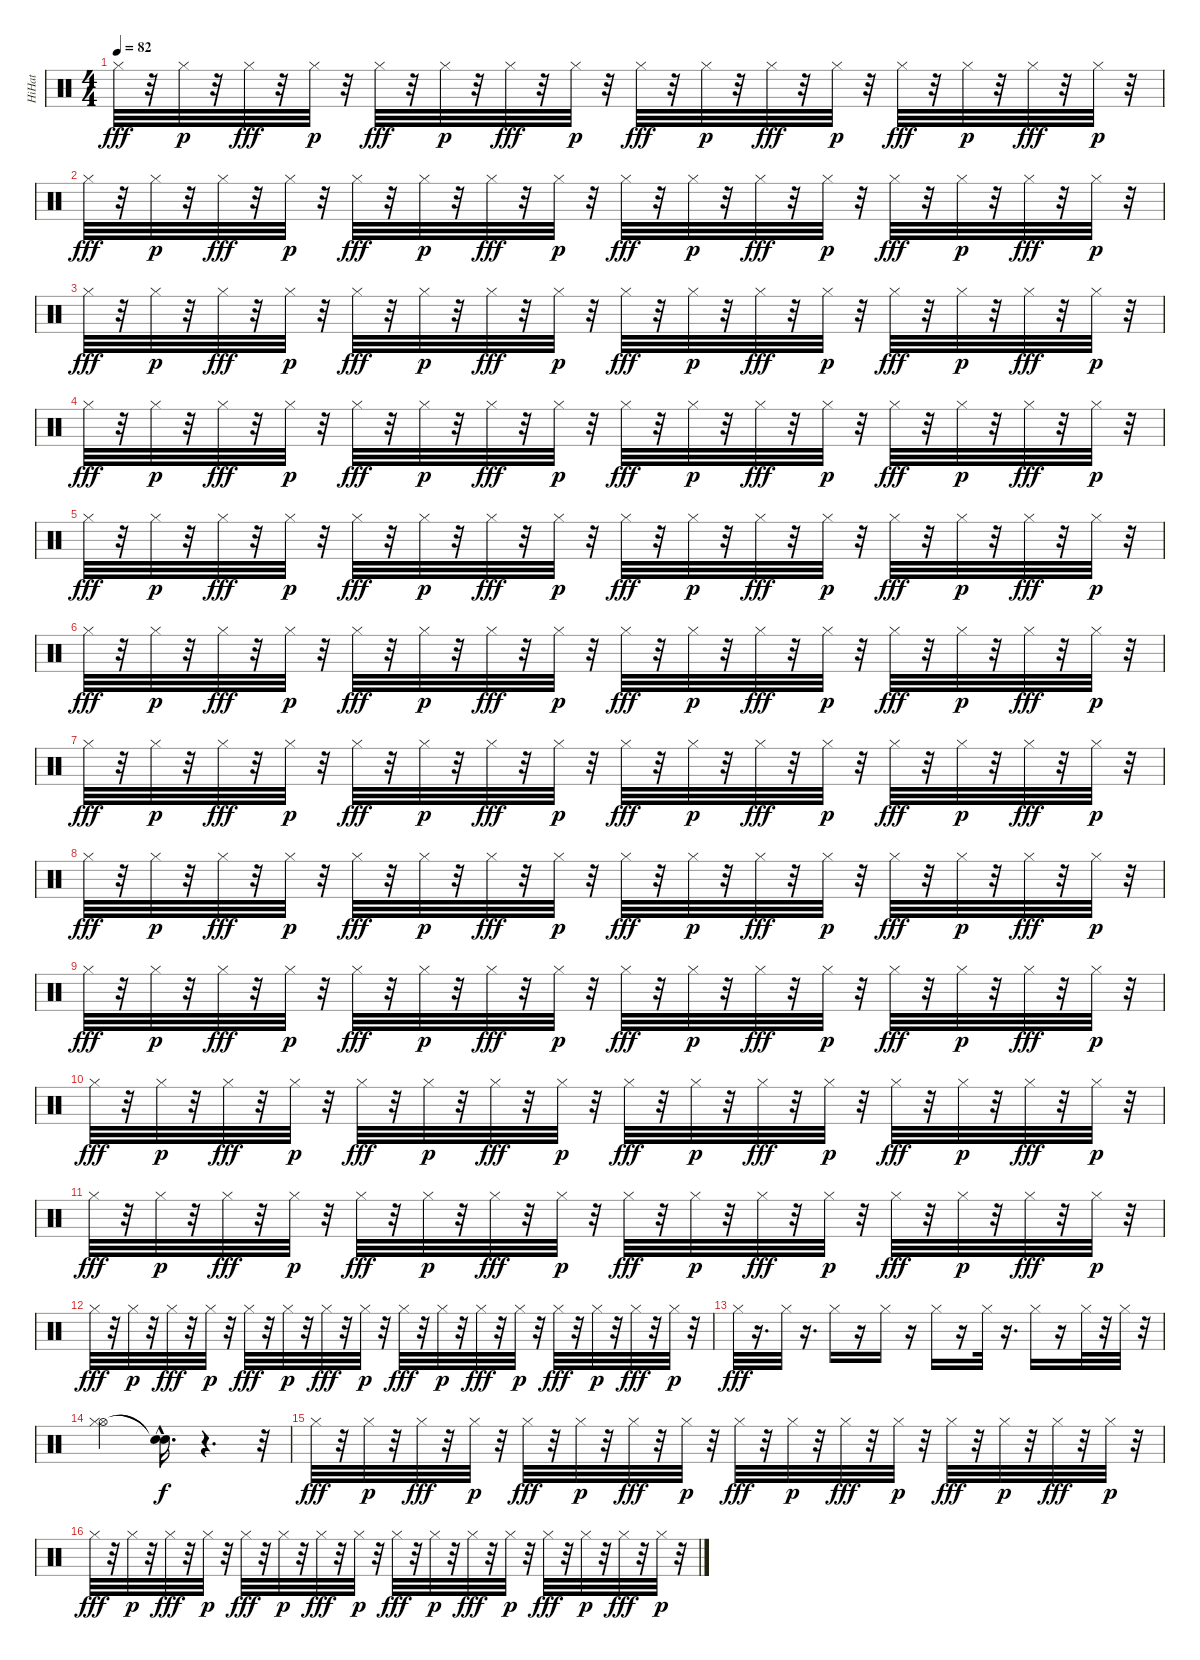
\track ("HiHat" "HiHat") {instrument percussion}
\staff {score}
\articulation defaults
\ts (4 4)
\tempo 82
\clef neutral
\ks c "Hi-Hat (closed)".32{dy fff}
r.32 "Hi-Hat (closed)".32{dy p} r.32 "Hi-Hat (closed)".32{dy fff} r.32 "Hi-Hat (closed)".32{dy p} r.32 "Hi-Hat (closed)".32{dy fff} r.32 "Hi-Hat (closed)".32{dy p} r.32 "Hi-Hat (closed)".32{dy fff} r.32 "Hi-Hat (closed)".32{dy p} r.32 "Hi-Hat (closed)".32{dy fff} r.32 "Hi-Hat (closed)".32{dy p} r.32 "Hi-Hat (closed)".32{dy fff} r.32 "Hi-Hat (closed)".32{dy p} r.32 "Hi-Hat (closed)".32{dy fff} r.32 "Hi-Hat (closed)".32{dy p} r.32 "Hi-Hat (closed)".32{dy fff} r.32 "Hi-Hat (closed)".32{dy p} r.32 |
"Hi-Hat (closed)".32{dy fff} r.32 "Hi-Hat (closed)".32{dy p} r.32 "Hi-Hat (closed)".32{dy fff} r.32 "Hi-Hat (closed)".32{dy p} r.32 "Hi-Hat (closed)".32{dy fff} r.32 "Hi-Hat (closed)".32{dy p} r.32 "Hi-Hat (closed)".32{dy fff} r.32 "Hi-Hat (closed)".32{dy p} r.32 "Hi-Hat (closed)".32{dy fff} r.32 "Hi-Hat (closed)".32{dy p} r.32 "Hi-Hat (closed)".32{dy fff} r.32 "Hi-Hat (closed)".32{dy p} r.32 "Hi-Hat (closed)".32{dy fff} r.32 "Hi-Hat (closed)".32{dy p} r.32 "Hi-Hat (closed)".32{dy fff} r.32 "Hi-Hat (closed)".32{dy p} r.32 |
"Hi-Hat (closed)".32{dy fff} r.32 "Hi-Hat (closed)".32{dy p} r.32 "Hi-Hat (closed)".32{dy fff} r.32 "Hi-Hat (closed)".32{dy p} r.32 "Hi-Hat (closed)".32{dy fff} r.32 "Hi-Hat (closed)".32{dy p} r.32 "Hi-Hat (closed)".32{dy fff} r.32 "Hi-Hat (closed)".32{dy p} r.32 "Hi-Hat (closed)".32{dy fff} r.32 "Hi-Hat (closed)".32{dy p} r.32 "Hi-Hat (closed)".32{dy fff} r.32 "Hi-Hat (closed)".32{dy p} r.32 "Hi-Hat (closed)".32{dy fff} r.32 "Hi-Hat (closed)".32{dy p} r.32 "Hi-Hat (closed)".32{dy fff} r.32 "Hi-Hat (closed)".32{dy p} r.32 |
"Hi-Hat (closed)".32{dy fff} r.32 "Hi-Hat (closed)".32{dy p} r.32 "Hi-Hat (closed)".32{dy fff} r.32 "Hi-Hat (closed)".32{dy p} r.32 "Hi-Hat (closed)".32{dy fff} r.32 "Hi-Hat (closed)".32{dy p} r.32 "Hi-Hat (closed)".32{dy fff} r.32 "Hi-Hat (closed)".32{dy p} r.32 "Hi-Hat (closed)".32{dy fff} r.32 "Hi-Hat (closed)".32{dy p} r.32 "Hi-Hat (closed)".32{dy fff} r.32 "Hi-Hat (closed)".32{dy p} r.32 "Hi-Hat (closed)".32{dy fff} r.32 "Hi-Hat (closed)".32{dy p} r.32 "Hi-Hat (closed)".32{dy fff} r.32 "Hi-Hat (closed)".32{dy p} r.32 |
"Hi-Hat (closed)".32{dy fff} r.32 "Hi-Hat (closed)".32{dy p} r.32 "Hi-Hat (closed)".32{dy fff} r.32 "Hi-Hat (closed)".32{dy p} r.32 "Hi-Hat (closed)".32{dy fff} r.32 "Hi-Hat (closed)".32{dy p} r.32 "Hi-Hat (closed)".32{dy fff} r.32 "Hi-Hat (closed)".32{dy p} r.32 "Hi-Hat (closed)".32{dy fff} r.32 "Hi-Hat (closed)".32{dy p} r.32 "Hi-Hat (closed)".32{dy fff} r.32 "Hi-Hat (closed)".32{dy p} r.32 "Hi-Hat (closed)".32{dy fff} r.32 "Hi-Hat (closed)".32{dy p} r.32 "Hi-Hat (closed)".32{dy fff} r.32 "Hi-Hat (closed)".32{dy p} r.32 |
"Hi-Hat (closed)".32{dy fff} r.32 "Hi-Hat (closed)".32{dy p} r.32 "Hi-Hat (closed)".32{dy fff} r.32 "Hi-Hat (closed)".32{dy p} r.32 "Hi-Hat (closed)".32{dy fff} r.32 "Hi-Hat (closed)".32{dy p} r.32 "Hi-Hat (closed)".32{dy fff} r.32 "Hi-Hat (closed)".32{dy p} r.32 "Hi-Hat (closed)".32{dy fff} r.32 "Hi-Hat (closed)".32{dy p} r.32 "Hi-Hat (closed)".32{dy fff} r.32 "Hi-Hat (closed)".32{dy p} r.32 "Hi-Hat (closed)".32{dy fff} r.32 "Hi-Hat (closed)".32{dy p} r.32 "Hi-Hat (closed)".32{dy fff} r.32 "Hi-Hat (closed)".32{dy p} r.32 |
"Hi-Hat (closed)".32{dy fff} r.32 "Hi-Hat (closed)".32{dy p} r.32 "Hi-Hat (closed)".32{dy fff} r.32 "Hi-Hat (closed)".32{dy p} r.32 "Hi-Hat (closed)".32{dy fff} r.32 "Hi-Hat (closed)".32{dy p} r.32 "Hi-Hat (closed)".32{dy fff} r.32 "Hi-Hat (closed)".32{dy p} r.32 "Hi-Hat (closed)".32{dy fff} r.32 "Hi-Hat (closed)".32{dy p} r.32 "Hi-Hat (closed)".32{dy fff} r.32 "Hi-Hat (closed)".32{dy p} r.32 "Hi-Hat (closed)".32{dy fff} r.32 "Hi-Hat (closed)".32{dy p} r.32 "Hi-Hat (closed)".32{dy fff} r.32 "Hi-Hat (closed)".32{dy p} r.32 |
"Hi-Hat (closed)".32{dy fff} r.32 "Hi-Hat (closed)".32{dy p} r.32 "Hi-Hat (closed)".32{dy fff} r.32 "Hi-Hat (closed)".32{dy p} r.32 "Hi-Hat (closed)".32{dy fff} r.32 "Hi-Hat (closed)".32{dy p} r.32 "Hi-Hat (closed)".32{dy fff} r.32 "Hi-Hat (closed)".32{dy p} r.32 "Hi-Hat (closed)".32{dy fff} r.32 "Hi-Hat (closed)".32{dy p} r.32 "Hi-Hat (closed)".32{dy fff} r.32 "Hi-Hat (closed)".32{dy p} r.32 "Hi-Hat (closed)".32{dy fff} r.32 "Hi-Hat (closed)".32{dy p} r.32 "Hi-Hat (closed)".32{dy fff} r.32 "Hi-Hat (closed)".32{dy p} r.32 |
"Hi-Hat (closed)".32{dy fff} r.32 "Hi-Hat (closed)".32{dy p} r.32 "Hi-Hat (closed)".32{dy fff} r.32 "Hi-Hat (closed)".32{dy p} r.32 "Hi-Hat (closed)".32{dy fff} r.32 "Hi-Hat (closed)".32{dy p} r.32 "Hi-Hat (closed)".32{dy fff} r.32 "Hi-Hat (closed)".32{dy p} r.32 "Hi-Hat (closed)".32{dy fff} r.32 "Hi-Hat (closed)".32{dy p} r.32 "Hi-Hat (closed)".32{dy fff} r.32 "Hi-Hat (closed)".32{dy p} r.32 "Hi-Hat (closed)".32{dy fff} r.32 "Hi-Hat (closed)".32{dy p} r.32 "Hi-Hat (closed)".32{dy fff} r.32 "Hi-Hat (closed)".32{dy p} r.32 |
"Hi-Hat (closed)".32{dy fff} r.32 "Hi-Hat (closed)".32{dy p} r.32 "Hi-Hat (closed)".32{dy fff} r.32 "Hi-Hat (closed)".32{dy p} r.32 "Hi-Hat (closed)".32{dy fff} r.32 "Hi-Hat (closed)".32{dy p} r.32 "Hi-Hat (closed)".32{dy fff} r.32 "Hi-Hat (closed)".32{dy p} r.32 "Hi-Hat (closed)".32{dy fff} r.32 "Hi-Hat (closed)".32{dy p} r.32 "Hi-Hat (closed)".32{dy fff} r.32 "Hi-Hat (closed)".32{dy p} r.32 "Hi-Hat (closed)".32{dy fff} r.32 "Hi-Hat (closed)".32{dy p} r.32 "Hi-Hat (closed)".32{dy fff} r.32 "Hi-Hat (closed)".32{dy p} r.32 |
"Hi-Hat (closed)".32{dy fff} r.32 "Hi-Hat (closed)".32{dy p} r.32 "Hi-Hat (closed)".32{dy fff} r.32 "Hi-Hat (closed)".32{dy p} r.32 "Hi-Hat (closed)".32{dy fff} r.32 "Hi-Hat (closed)".32{dy p} r.32 "Hi-Hat (closed)".32{dy fff} r.32 "Hi-Hat (closed)".32{dy p} r.32 "Hi-Hat (closed)".32{dy fff} r.32 "Hi-Hat (closed)".32{dy p} r.32 "Hi-Hat (closed)".32{dy fff} r.32 "Hi-Hat (closed)".32{dy p} r.32 "Hi-Hat (closed)".32{dy fff} r.32 "Hi-Hat (closed)".32{dy p} r.32 "Hi-Hat (closed)".32{dy fff} r.32 "Hi-Hat (closed)".32{dy p} r.32 |
"Hi-Hat (closed)".32{dy fff} r.32 "Hi-Hat (closed)".32{dy p} r.32 "Hi-Hat (closed)".32{dy fff} r.32 "Hi-Hat (closed)".32{dy p} r.32 "Hi-Hat (closed)".32{dy fff} r.32 "Hi-Hat (closed)".32{dy p} r.32 "Hi-Hat (closed)".32{dy fff} r.32 "Hi-Hat (closed)".32{dy p} r.32 "Hi-Hat (closed)".32{dy fff} r.32 "Hi-Hat (closed)".32{dy p} r.32 "Hi-Hat (closed)".32{dy fff} r.32 "Hi-Hat (closed)".32{dy p} r.32 "Hi-Hat (closed)".32{dy fff} r.32 "Hi-Hat (closed)".32{dy p} r.32 "Hi-Hat (closed)".32{dy fff} r.32 "Hi-Hat (closed)".32{dy p} r.32 |
"Hi-Hat (closed)".32{dy fff} r.16{d} "Hi-Hat (closed)".32 r.16{d} "Hi-Hat (closed)".16 r.16 "Hi-Hat (closed)".16 r.16 "Hi-Hat (closed)".16 r.16 "Hi-Hat (closed)".32 r.16{d} "Hi-Hat (closed)".16 r.16 "Hi-Hat (closed)".32 r.32 "Hi-Hat (closed)".32 r.32 |
("Hi-Hat (open)" "Hi-Hat (closed)").2 ("Snare (hit)"{t} "Snare (hit)"{hac t}).16{d dy f} r.4{d} r.32 |
"Hi-Hat (closed)".32{dy fff} r.32 "Hi-Hat (closed)".32{dy p} r.32 "Hi-Hat (closed)".32{dy fff} r.32 "Hi-Hat (closed)".32{dy p} r.32 "Hi-Hat (closed)".32{dy fff} r.32 "Hi-Hat (closed)".32{dy p} r.32 "Hi-Hat (closed)".32{dy fff} r.32 "Hi-Hat (closed)".32{dy p} r.32 "Hi-Hat (closed)".32{dy fff} r.32 "Hi-Hat (closed)".32{dy p} r.32 "Hi-Hat (closed)".32{dy fff} r.32 "Hi-Hat (closed)".32{dy p} r.32 "Hi-Hat (closed)".32{dy fff} r.32 "Hi-Hat (closed)".32{dy p} r.32 "Hi-Hat (closed)".32{dy fff} r.32 "Hi-Hat (closed)".32{dy p} r.32 |
"Hi-Hat (closed)".32{dy fff} r.32 "Hi-Hat (closed)".32{dy p} r.32 "Hi-Hat (closed)".32{dy fff} r.32 "Hi-Hat (closed)".32{dy p} r.32 "Hi-Hat (closed)".32{dy fff} r.32 "Hi-Hat (closed)".32{dy p} r.32 "Hi-Hat (closed)".32{dy fff} r.32 "Hi-Hat (closed)".32{dy p} r.32 "Hi-Hat (closed)".32{dy fff} r.32 "Hi-Hat (closed)".32{dy p} r.32 "Hi-Hat (closed)".32{dy fff} r.32 "Hi-Hat (closed)".32{dy p} r.32 "Hi-Hat (closed)".32{dy fff} r.32 "Hi-Hat (closed)".32{dy p} r.32 "Hi-Hat (closed)".32{dy fff} r.32 "Hi-Hat (closed)".32{dy p} r.32
